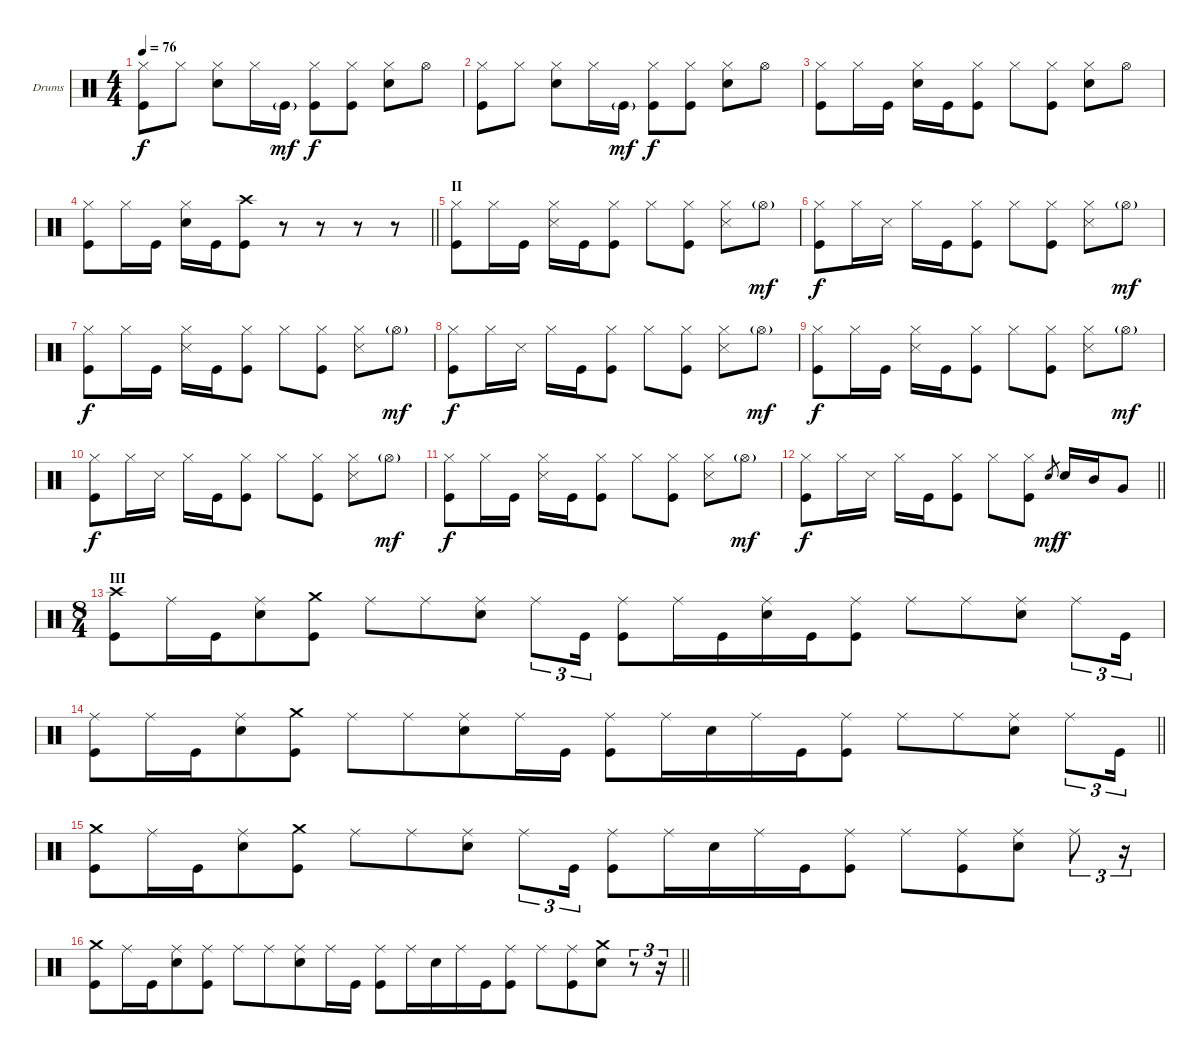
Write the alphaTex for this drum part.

\bracketExtendMode groupsimilarinstruments
\firstSystemTrackNameOrientation horizontal
\otherSystemsTrackNameOrientation horizontal
\track ("Drumkit" "Drums") {instrument percussion}
\staff {score}
\articulation defaults
\ts (4 4)
\tempo 76
\clef neutral
\ks c
("Hi-Hat (closed)" "Kick (hit)").8{dy f} "Hi-Hat (closed)".8 ("Hi-Hat (closed)" "Snare (hit) 2").8 "Hi-Hat (closed)".16 "Kick (hit)"{g}.16{dy mf} ("Hi-Hat (closed)" "Kick (hit)").8{dy f} ("Hi-Hat (closed)" "Kick (hit)").8 ("Hi-Hat (closed)" "Snare (hit) 2").8 "Hi-Hat (open)".8 |
("Hi-Hat (closed)" "Kick (hit)").8 "Hi-Hat (closed)".8 ("Hi-Hat (closed)" "Snare (hit) 2").8 "Hi-Hat (closed)".16 "Kick (hit)"{g}.16{dy mf} ("Hi-Hat (closed)" "Kick (hit)").8{dy f} ("Hi-Hat (closed)" "Kick (hit)").8 ("Hi-Hat (closed)" "Snare (hit) 2").8 "Hi-Hat (open)".8 |
("Hi-Hat (closed)" "Kick (hit)").8 "Hi-Hat (closed)".16 "Kick (hit)".16 ("Hi-Hat (closed)" "Snare (hit) 2").16 "Kick (hit)".16 ("Kick (hit)" "Hi-Hat (closed)").8 "Hi-Hat (closed)".8 ("Hi-Hat (closed)" "Kick (hit)").8 ("Hi-Hat (closed)" "Snare (hit) 2").8 "Hi-Hat (open)".8 |
\barLineRight lightlight
("Hi-Hat (closed)" "Kick (hit)").8 "Hi-Hat (closed)".16 "Kick (hit)".16 ("Hi-Hat (closed)" "Snare (hit) 2").16 "Kick (hit)".16 ("Kick (hit)" "Crash high (hit)").8 r.8 r.8 r.8 r.8 |
\section ("" "II")
("Hi-Hat (closed)" "Kick (hit)").8 "Hi-Hat (closed)".16 "Kick (hit)".16 ("Hi-Hat (closed)" "Snare (side stick) 3").16 "Kick (hit)".16 ("Hi-Hat (closed)" "Kick (hit)").8 "Hi-Hat (closed)".8 ("Hi-Hat (closed)" "Kick (hit)").8 ("Hi-Hat (closed)" "Snare (side stick) 3").8 "Hi-Hat (open)"{g}.8{dy mf} |
("Hi-Hat (closed)" "Kick (hit)").8{dy f} "Hi-Hat (closed)".16 "Snare (side stick) 3".16 "Hi-Hat (closed)".16 "Kick (hit)".16 ("Hi-Hat (closed)" "Kick (hit)").8 "Hi-Hat (closed)".8 ("Hi-Hat (closed)" "Kick (hit)").8 ("Hi-Hat (closed)" "Snare (side stick) 3").8 "Hi-Hat (open)"{g}.8{dy mf} |
("Hi-Hat (closed)" "Kick (hit)").8{dy f} "Hi-Hat (closed)".16 "Kick (hit)".16 ("Hi-Hat (closed)" "Snare (side stick) 3").16 "Kick (hit)".16 ("Hi-Hat (closed)" "Kick (hit)").8 "Hi-Hat (closed)".8 ("Hi-Hat (closed)" "Kick (hit)").8 ("Hi-Hat (closed)" "Snare (side stick) 3").8 "Hi-Hat (open)"{g}.8{dy mf} |
("Hi-Hat (closed)" "Kick (hit)").8{dy f} "Hi-Hat (closed)".16 "Snare (side stick) 3".16 "Hi-Hat (closed)".16 "Kick (hit)".16 ("Hi-Hat (closed)" "Kick (hit)").8 "Hi-Hat (closed)".8 ("Hi-Hat (closed)" "Kick (hit)").8 ("Hi-Hat (closed)" "Snare (side stick) 3").8 "Hi-Hat (open)"{g}.8{dy mf} |
("Hi-Hat (closed)" "Kick (hit)").8{dy f} "Hi-Hat (closed)".16 "Kick (hit)".16 ("Hi-Hat (closed)" "Snare (side stick) 3").16 "Kick (hit)".16 ("Hi-Hat (closed)" "Kick (hit)").8 "Hi-Hat (closed)".8 ("Hi-Hat (closed)" "Kick (hit)").8 ("Hi-Hat (closed)" "Snare (side stick) 3").8 "Hi-Hat (open)"{g}.8{dy mf} |
("Hi-Hat (closed)" "Kick (hit)").8{dy f} "Hi-Hat (closed)".16 "Snare (side stick) 3".16 "Hi-Hat (closed)".16 "Kick (hit)".16 ("Hi-Hat (closed)" "Kick (hit)").8 "Hi-Hat (closed)".8 ("Hi-Hat (closed)" "Kick (hit)").8 ("Hi-Hat (closed)" "Snare (side stick) 3").8 "Hi-Hat (open)"{g}.8{dy mf} |
("Hi-Hat (closed)" "Kick (hit)").8{dy f} "Hi-Hat (closed)".16 "Kick (hit)".16 ("Hi-Hat (closed)" "Snare (side stick) 3").16 "Kick (hit)".16 ("Hi-Hat (closed)" "Kick (hit)").8 "Hi-Hat (closed)".8 ("Hi-Hat (closed)" "Kick (hit)").8 ("Hi-Hat (closed)" "Snare (side stick) 3").8 "Hi-Hat (open)"{g}.8{dy mf} |
\barLineRight lightlight
("Hi-Hat (closed)" "Kick (hit)").8{dy f} "Hi-Hat (closed)".16 "Snare (side stick) 3".16 "Hi-Hat (closed)".16 "Kick (hit)".16 ("Hi-Hat (closed)" "Kick (hit)").8 "Hi-Hat (closed)".8 ("Hi-Hat (closed)" "Kick (hit)").8 "Snare (hit) 2".8{gr dy mf} "Snare (hit) 2".16{dy f} "Mid Tom (hit)".16 "Very Low Tom (hit)".8 |
\ts (8 4)
\beaming (8 4 4 4 4)
\section ("" "III")
("Kick (hit)" "Crash high (hit)").8 "Ride (middle)".16 "Kick (hit)".16 ("Ride (middle)" "Snare (hit) 2").8 ("Kick (hit)" "Crash medium (hit)").8 "Ride (middle)".8 "Ride (middle)".8 ("Ride (middle)" "Snare (hit) 2").8 "Ride (middle)".8{tu (3 2)} "Kick (hit)".16{tu (3 2)} ("Kick (hit)" "Ride (middle)").8 "Ride (middle)".16 "Kick (hit)".16 ("Ride (middle)" "Snare (hit) 2").16 "Kick (hit)".16 ("Kick (hit)" "Ride (middle)").8 "Ride (middle)".8 "Ride (middle)".8 ("Ride (middle)" "Snare (hit) 2").8 "Ride (middle)".8{tu (3 2)} "Kick (hit)".16{tu (3 2)} |
\barLineRight lightlight
("Kick (hit)" "Ride (middle)").8 "Ride (middle)".16 "Kick (hit)".16 ("Ride (middle)" "Snare (hit) 2").8 ("Kick (hit)" "Crash medium (hit)").8 "Ride (middle)".8 "Ride (middle)".8 ("Ride (middle)" "Snare (hit) 2").8 "Ride (middle)".16 "Kick (hit)".16 ("Kick (hit)" "Ride (middle)").8 "Ride (middle)".16 "Snare (hit) 2".16 "Ride (middle)".16 "Kick (hit)".16 ("Kick (hit)" "Ride (middle)").8 "Ride (middle)".8 "Ride (middle)".8 ("Ride (middle)" "Snare (hit) 2").8 "Ride (middle)".8{tu (3 2)} "Kick (hit)".16{tu (3 2)} |
("Kick (hit)" "Crash medium (hit)").8 "Ride (middle)".16 "Kick (hit)".16 ("Ride (middle)" "Snare (hit) 2").8 ("Kick (hit)" "Crash medium (hit)").8 "Ride (middle)".8 "Ride (middle)".8 ("Ride (middle)" "Snare (hit) 2").8 "Ride (middle)".8{tu (3 2)} "Kick (hit)".16{tu (3 2)} ("Kick (hit)" "Ride (middle)").8 "Ride (middle)".16 "Snare (hit) 2".16 "Ride (middle)".16 "Kick (hit)".16 ("Kick (hit)" "Ride (middle)").8 "Ride (middle)".8 ("Ride (middle)" "Kick (hit)").8 ("Ride (middle)" "Snare (hit) 2").8 "Ride (middle)".8{tu (3 2)} r.16{tu (3 2)} |
\barLineRight lightlight
("Kick (hit)" "Crash medium (hit)").8 "Ride (middle)".16 "Kick (hit)".16 ("Ride (middle)" "Snare (hit) 2").8 ("Kick (hit)" "Ride (middle)").8 "Ride (middle)".8 "Ride (middle)".8 ("Ride (middle)" "Snare (hit) 2").8 "Ride (middle)".16 "Kick (hit)".16 ("Kick (hit)" "Ride (middle)").8 "Ride (middle)".16 "Snare (hit) 2".16 "Ride (middle)".16 "Kick (hit)".16 ("Kick (hit)" "Ride (middle)").8 "Ride (middle)".8 ("Ride (middle)" "Kick (hit)").8 ("Crash medium (hit)" "Snare (hit) 2").8 r.8{tu (3 2)} r.16{tu (3 2)}
